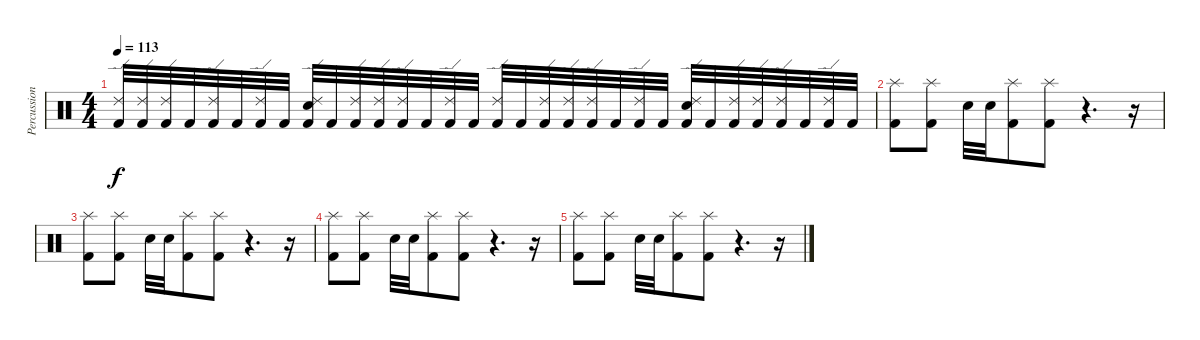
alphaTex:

\track ("Percussion" "Percussion") {instrument percussion}
\staff {score}
\articulation defaults
\ts (4 4)
\tempo 113
\clef neutral
\ks c
("Ride (edge) 2" "Kick (hit) 2").32{dy f} ("Ride (edge) 2" "Kick (hit) 2").32 ("Ride (edge) 2" "Kick (hit) 2").32 "Kick (hit) 2".32 ("Ride (edge) 2" "Kick (hit) 2").32 "Kick (hit) 2".32 ("Ride (edge) 2" "Kick (hit) 2").32 "Kick (hit) 2".32 ("Ride (edge) 2" "Electric Snare (hit)" "Kick (hit) 2").32 "Kick (hit) 2".32 ("Ride (edge) 2" "Kick (hit) 2").32 ("Ride (edge) 2" "Kick (hit) 2").32 ("Ride (edge) 2" "Kick (hit) 2").32 "Kick (hit) 2".32 ("Ride (edge) 2" "Kick (hit) 2").32 "Kick (hit) 2".32 ("Ride (edge) 2" "Kick (hit) 2").32 "Kick (hit) 2".32 ("Ride (edge) 2" "Kick (hit) 2").32 ("Ride (edge) 2" "Kick (hit) 2").32 ("Ride (edge) 2" "Kick (hit) 2").32 "Kick (hit) 2".32 ("Ride (edge) 2" "Kick (hit) 2").32 "Kick (hit) 2".32 ("Ride (edge) 2" "Electric Snare (hit)" "Kick (hit) 2").32 "Kick (hit) 2".32 ("Ride (edge) 2" "Kick (hit) 2").32 ("Ride (edge) 2" "Kick (hit) 2").32 ("Ride (edge) 2" "Kick (hit) 2").32 "Kick (hit) 2".32 ("Ride (edge) 2" "Kick (hit) 2").32 "Kick (hit) 2".32 |
("Splash (hit)" "Kick (hit) 2").8 ("Splash (hit)" "Kick (hit) 2").8 "Snare (hit)"{x}.32 "Snare (hit)"{x}.32 ("Splash (hit)" "Kick (hit) 2").8 ("Splash (hit)" "Kick (hit) 2").8 r.4{d} r.16 |
("Splash (hit)" "Kick (hit) 2").8 ("Splash (hit)" "Kick (hit) 2").8 "Snare (hit)"{x}.32 "Snare (hit)"{x}.32 ("Splash (hit)" "Kick (hit) 2").8 ("Splash (hit)" "Kick (hit) 2").8 r.4{d} r.16 |
("Splash (hit)" "Kick (hit) 2").8 ("Splash (hit)" "Kick (hit) 2").8 "Snare (hit)"{x}.32 "Snare (hit)"{x}.32 ("Splash (hit)" "Kick (hit) 2").8 ("Splash (hit)" "Kick (hit) 2").8 r.4{d} r.16 |
("Splash (hit)" "Kick (hit) 2").8 ("Splash (hit)" "Kick (hit) 2").8 "Snare (hit)"{x}.32 "Snare (hit)"{x}.32 ("Splash (hit)" "Kick (hit) 2").8 ("Splash (hit)" "Kick (hit) 2").8 r.4{d} r.16
